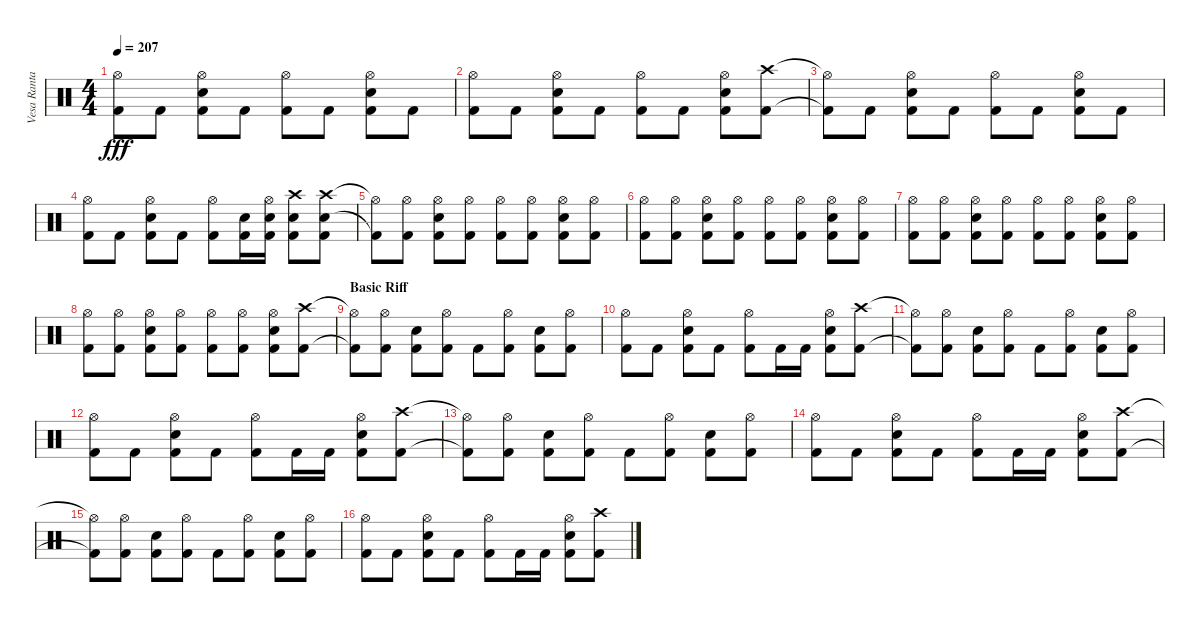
\track ("Vesa Ranta" "Vesa Ranta") {instrument percussion}
\staff {score}
\articulation defaults
\ts (4 4)
\tempo 207
\clef neutral
\ks c
("Hi-Hat (open)"{t} "Kick (hit) 2"{t}).8{dy fff} "Kick (hit) 2".8 ("Hi-Hat (open)" "Snare (hit) 2" "Kick (hit) 2").8 "Kick (hit) 2".8 ("Hi-Hat (open)" "Kick (hit) 2").8 "Kick (hit) 2".8 ("Hi-Hat (open)" "Snare (hit) 2" "Kick (hit) 2").8 "Kick (hit) 2".8 |
("Hi-Hat (open)" "Kick (hit) 2").8 "Kick (hit) 2".8 ("Hi-Hat (open)" "Snare (hit) 2" "Kick (hit) 2").8 "Kick (hit) 2".8 ("Hi-Hat (open)" "Kick (hit) 2").8 "Kick (hit) 2".8 ("Hi-Hat (open)" "Snare (hit) 2" "Kick (hit) 2").8 ("Crash high (hit)" "Kick (hit) 2").8 |
("Hi-Hat (open)"{t} "Kick (hit) 2"{t}).8 "Kick (hit) 2".8 ("Hi-Hat (open)" "Snare (hit) 2" "Kick (hit) 2").8 "Kick (hit) 2".8 ("Hi-Hat (open)" "Kick (hit) 2").8 "Kick (hit) 2".8 ("Hi-Hat (open)" "Snare (hit) 2" "Kick (hit) 2").8 "Kick (hit) 2".8 |
("Hi-Hat (open)" "Kick (hit) 2").8 "Kick (hit) 2".8 ("Hi-Hat (open)" "Snare (hit) 2" "Kick (hit) 2").8 "Kick (hit) 2".8 ("Hi-Hat (open)" "Kick (hit) 2").8 ("Snare (hit) 2" "Kick (hit) 2").16 ("Hi-Hat (open)" "Snare (hit) 2" "Kick (hit) 2").16 ("Crash high (hit)" "Snare (hit) 2" "Kick (hit) 2").8 ("Crash high (hit)" "Snare (hit) 2" "Kick (hit) 2").8 |
("Hi-Hat (open)"{t} "Kick (hit) 2"{t}).8 ("Hi-Hat (open)" "Kick (hit) 2").8 ("Hi-Hat (open)" "Snare (hit) 2" "Kick (hit) 2").8 ("Hi-Hat (open)" "Kick (hit) 2").8 ("Hi-Hat (open)" "Kick (hit) 2").8 ("Hi-Hat (open)" "Kick (hit) 2").8 ("Hi-Hat (open)" "Snare (hit) 2" "Kick (hit) 2").8 ("Hi-Hat (open)" "Kick (hit) 2").8 |
("Hi-Hat (open)" "Kick (hit) 2").8 ("Hi-Hat (open)" "Kick (hit) 2").8 ("Hi-Hat (open)" "Snare (hit) 2" "Kick (hit) 2").8 ("Hi-Hat (open)" "Kick (hit) 2").8 ("Hi-Hat (open)" "Kick (hit) 2").8 ("Hi-Hat (open)" "Kick (hit) 2").8 ("Hi-Hat (open)" "Snare (hit) 2" "Kick (hit) 2").8 ("Hi-Hat (open)" "Kick (hit) 2").8 |
("Hi-Hat (open)" "Kick (hit) 2").8 ("Hi-Hat (open)" "Kick (hit) 2").8 ("Hi-Hat (open)" "Snare (hit) 2" "Kick (hit) 2").8 ("Hi-Hat (open)" "Kick (hit) 2").8 ("Hi-Hat (open)" "Kick (hit) 2").8 ("Hi-Hat (open)" "Kick (hit) 2").8 ("Hi-Hat (open)" "Snare (hit) 2" "Kick (hit) 2").8 ("Hi-Hat (open)" "Kick (hit) 2").8 |
("Hi-Hat (open)" "Kick (hit) 2").8 ("Hi-Hat (open)" "Kick (hit) 2").8 ("Hi-Hat (open)" "Snare (hit) 2" "Kick (hit) 2").8 ("Hi-Hat (open)" "Kick (hit) 2").8 ("Hi-Hat (open)" "Kick (hit) 2").8 ("Hi-Hat (open)" "Kick (hit) 2").8 ("Hi-Hat (open)" "Snare (hit) 2" "Kick (hit) 2").8 ("Crash high (hit)" "Kick (hit) 2").8 |
\section ("" "Basic Riff ")
("Hi-Hat (open)"{t} "Kick (hit) 2"{t}).8 ("Hi-Hat (open)" "Kick (hit) 2").8 ("Snare (hit) 2" "Kick (hit) 2").8 ("Hi-Hat (open)" "Kick (hit) 2").8 "Kick (hit) 2".8 ("Hi-Hat (open)" "Kick (hit) 2").8 ("Snare (hit) 2" "Kick (hit) 2").8 ("Hi-Hat (open)" "Kick (hit) 2").8 |
("Hi-Hat (open)" "Kick (hit) 2").8 "Kick (hit) 2".8 ("Hi-Hat (open)" "Snare (hit) 2" "Kick (hit) 2").8 "Kick (hit) 2".8 ("Hi-Hat (open)" "Kick (hit) 2").8 "Kick (hit) 2".16 "Kick (hit) 2".16 ("Hi-Hat (open)" "Snare (hit) 2" "Kick (hit) 2").8 ("Crash high (hit)" "Kick (hit) 2").8 |
("Hi-Hat (open)"{t} "Kick (hit) 2"{t}).8 ("Hi-Hat (open)" "Kick (hit) 2").8 ("Snare (hit) 2" "Kick (hit) 2").8 ("Hi-Hat (open)" "Kick (hit) 2").8 "Kick (hit) 2".8 ("Hi-Hat (open)" "Kick (hit) 2").8 ("Snare (hit) 2" "Kick (hit) 2").8 ("Hi-Hat (open)" "Kick (hit) 2").8 |
("Hi-Hat (open)" "Kick (hit) 2").8 "Kick (hit) 2".8 ("Hi-Hat (open)" "Snare (hit) 2" "Kick (hit) 2").8 "Kick (hit) 2".8 ("Hi-Hat (open)" "Kick (hit) 2").8 "Kick (hit) 2".16 "Kick (hit) 2".16 ("Hi-Hat (open)" "Snare (hit) 2" "Kick (hit) 2").8 ("Crash high (hit)" "Kick (hit) 2").8 |
("Hi-Hat (open)"{t} "Kick (hit) 2"{t}).8 ("Hi-Hat (open)" "Kick (hit) 2").8 ("Snare (hit) 2" "Kick (hit) 2").8 ("Hi-Hat (open)" "Kick (hit) 2").8 "Kick (hit) 2".8 ("Hi-Hat (open)" "Kick (hit) 2").8 ("Snare (hit) 2" "Kick (hit) 2").8 ("Hi-Hat (open)" "Kick (hit) 2").8 |
("Hi-Hat (open)" "Kick (hit) 2").8 "Kick (hit) 2".8 ("Hi-Hat (open)" "Snare (hit) 2" "Kick (hit) 2").8 "Kick (hit) 2".8 ("Hi-Hat (open)" "Kick (hit) 2").8 "Kick (hit) 2".16 "Kick (hit) 2".16 ("Hi-Hat (open)" "Snare (hit) 2" "Kick (hit) 2").8 ("Crash high (hit)" "Kick (hit) 2").8 |
("Hi-Hat (open)"{t} "Kick (hit) 2"{t}).8 ("Hi-Hat (open)" "Kick (hit) 2").8 ("Snare (hit) 2" "Kick (hit) 2").8 ("Hi-Hat (open)" "Kick (hit) 2").8 "Kick (hit) 2".8 ("Hi-Hat (open)" "Kick (hit) 2").8 ("Snare (hit) 2" "Kick (hit) 2").8 ("Hi-Hat (open)" "Kick (hit) 2").8 |
("Hi-Hat (open)" "Kick (hit) 2").8 "Kick (hit) 2".8 ("Hi-Hat (open)" "Snare (hit) 2" "Kick (hit) 2").8 "Kick (hit) 2".8 ("Hi-Hat (open)" "Kick (hit) 2").8 "Kick (hit) 2".16 "Kick (hit) 2".16 ("Hi-Hat (open)" "Snare (hit) 2" "Kick (hit) 2").8 ("Crash high (hit)" "Kick (hit) 2").8
